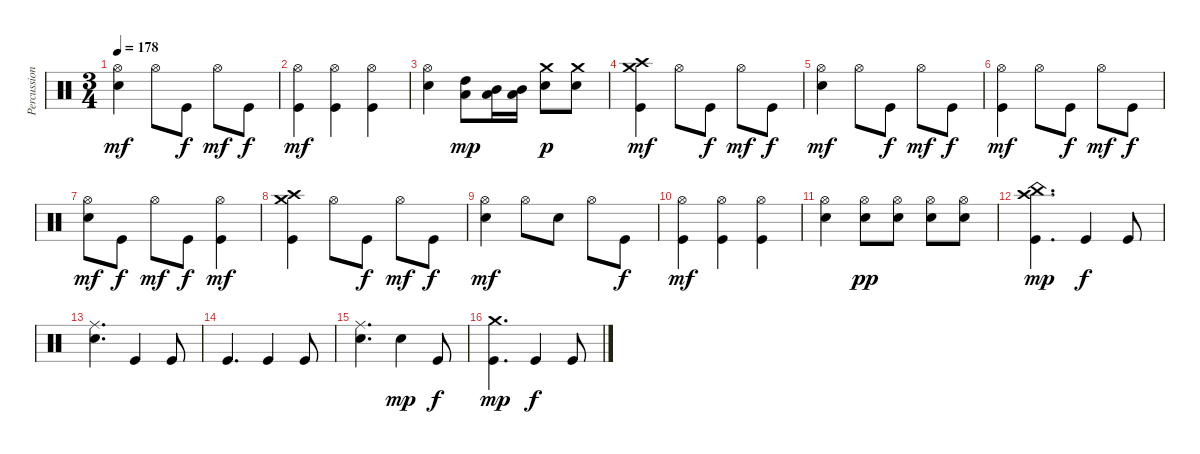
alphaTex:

\track ("Percussions" "Percussion") {instrument percussion}
\staff {score}
\articulation defaults
\ts (3 4)
\tempo 178
\clef neutral
\ks c
("Electric Snare (hit)" "Hi-Hat (open)").4{dy mf} "Hi-Hat (open)".8 "Kick (hit)".8{dy f} "Hi-Hat (open)".8{dy mf} "Kick (hit)".8{dy f} |
("Kick (hit)" "Hi-Hat (open)").4{dy mf} ("Kick (hit)" "Hi-Hat (open)").4 ("Kick (hit)" "Hi-Hat (open)").4 |
("Electric Snare (hit)" "Hi-Hat (open)").4 ("Low Tom (hit)" "High Tom (hit)").8{dy mp} ("Low Tom (hit)" "Mid Tom (hit)").16 ("Low Tom (hit)" "Mid Tom (hit)").16 ("Electric Snare (hit)" "Crash medium (hit)").8{dy p} ("Electric Snare (hit)" "Crash medium (hit)").8 |
("Kick (hit)" "Crash high (hit)" "Crash medium (hit)").4{dy mf} "Hi-Hat (open)".8 "Kick (hit)".8{dy f} "Hi-Hat (open)".8{dy mf} "Kick (hit)".8{dy f} |
("Electric Snare (hit)" "Hi-Hat (open)").4{dy mf} "Hi-Hat (open)".8 "Kick (hit)".8{dy f} "Hi-Hat (open)".8{dy mf} "Kick (hit)".8{dy f} |
("Kick (hit)" "Hi-Hat (open)").4{dy mf} "Hi-Hat (open)".8 "Kick (hit)".8{dy f} "Hi-Hat (open)".8{dy mf} "Kick (hit)".8{dy f} |
("Electric Snare (hit)" "Hi-Hat (open)").8{dy mf} "Kick (hit)".8{dy f} "Hi-Hat (open)".8{dy mf} "Kick (hit)".8{dy f} ("Kick (hit)" "Hi-Hat (open)").4{dy mf} |
("Kick (hit)" "Crash high (hit)" "Crash medium (hit)").4 "Hi-Hat (open)".8 "Kick (hit)".8{dy f} "Hi-Hat (open)".8{dy mf} "Kick (hit)".8{dy f} |
("Electric Snare (hit)" "Hi-Hat (open)").4{dy mf} "Hi-Hat (open)".8 "Electric Snare (hit)".8 "Hi-Hat (open)".8 "Kick (hit)".8{dy f} |
("Kick (hit)" "Hi-Hat (open)").4{dy mf} ("Kick (hit)" "Hi-Hat (open)").4 ("Kick (hit)" "Hi-Hat (open)").4 |
("Electric Snare (hit)" "Hi-Hat (open)").4 ("Electric Snare (hit)" "Hi-Hat (open)").8{dy pp} ("Electric Snare (hit)" "Hi-Hat (open)").8 ("Electric Snare (hit)" "Hi-Hat (open)").8 ("Electric Snare (hit)" "Hi-Hat (open)").8 |
("Kick (hit)" "China (hit)" "Crash high (hit)").4{d dy mp} "Kick (hit)".4{dy f} "Kick (hit)".8 |
("Electric Snare (hit)" "Ride (middle)").4{d} "Kick (hit)".4 "Kick (hit)".8 |
"Kick (hit)".4{d} "Kick (hit)".4 "Kick (hit)".8 |
("Electric Snare (hit)" "Ride (middle)").4{d} "Electric Snare (hit)".4{dy mp} "Kick (hit)".8{dy f} |
("Kick (hit)" "Crash medium (hit)").4{d dy mp} "Kick (hit)".4{dy f} "Kick (hit)".8
